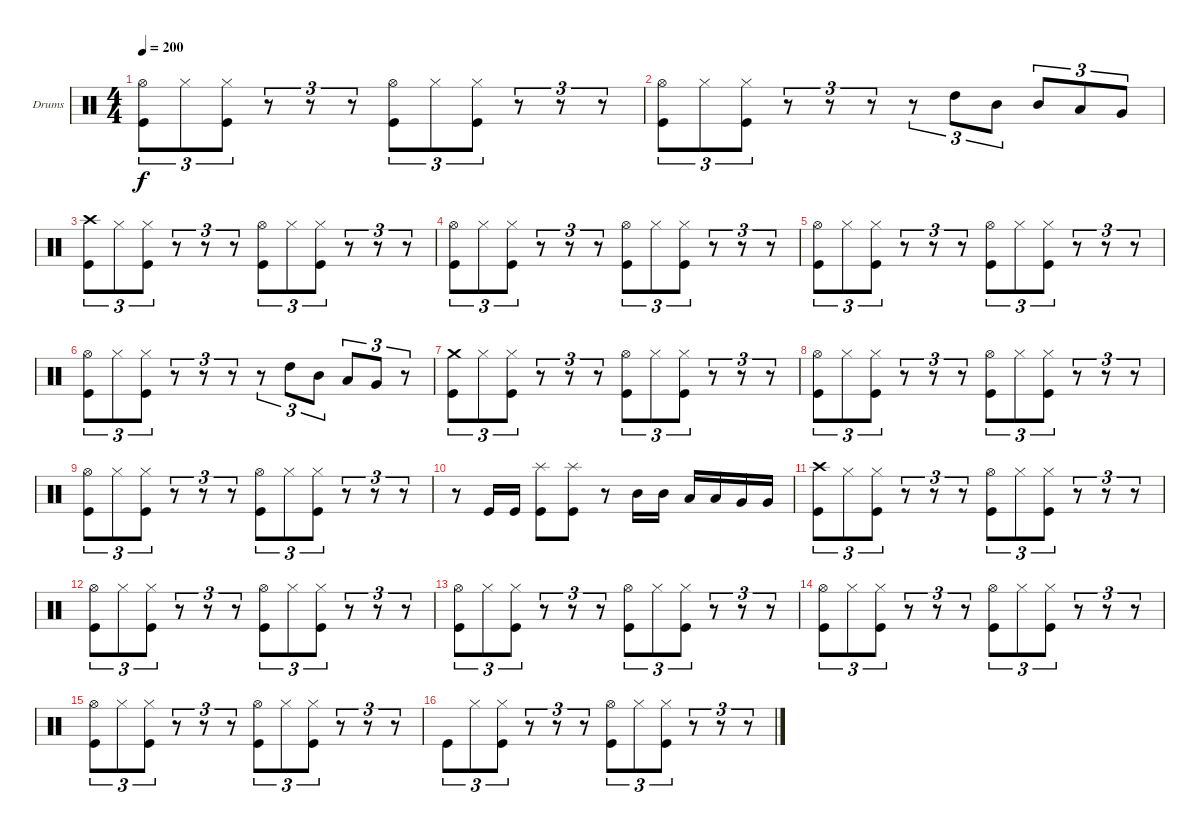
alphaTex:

\bracketExtendMode groupsimilarinstruments
\firstSystemTrackNameOrientation horizontal
\otherSystemsTrackNameOrientation horizontal
\track ("Drumkit" "Drums") {instrument percussion}
\staff {score}
\articulation defaults
\ts (4 4)
\tempo 200
\clef neutral
\scale
0.333333
\ks c
("Kick (hit)" "Hi-Hat (open)").8{tu (3 2) dy f} "Hi-Hat (closed)".8{tu (3 2)} ("Kick (hit)" "Hi-Hat (closed)").8{tu (3 2)} r.8{tu (3 2)} r.8{tu (3 2)} r.8{tu (3 2)} ("Kick (hit)" "Hi-Hat (open)").8{tu (3 2)} "Hi-Hat (closed)".8{tu (3 2)} ("Kick (hit)" "Hi-Hat (closed)").8{tu (3 2)} r.8{tu (3 2)} r.8{tu (3 2)} r.8{tu (3 2)} |
\scale
0.333333 ("Kick (hit)" "Hi-Hat (open)").8{tu (3 2)} "Hi-Hat (closed)".8{tu (3 2)} ("Kick (hit)" "Hi-Hat (closed)").8{tu (3 2)} r.8{tu (3 2)} r.8{tu (3 2)} r.8{tu (3 2)} r.8{tu (3 2)} "High Tom (hit)".8{tu (3 2)} "Mid Tom (hit)".8{tu (3 2)} "Mid Tom (hit)".8{tu (3 2)} "Low Tom (hit)".8{tu (3 2)} "Very Low Tom (hit)".8{tu (3 2)} |
\scale
0.333333 ("Kick (hit)" "Crash high (hit)").8{tu (3 2)} "Hi-Hat (closed)".8{tu (3 2)} ("Kick (hit)" "Hi-Hat (closed)").8{tu (3 2)} r.8{tu (3 2)} r.8{tu (3 2)} r.8{tu (3 2)} ("Kick (hit)" "Hi-Hat (open)").8{tu (3 2)} "Hi-Hat (closed)".8{tu (3 2)} ("Kick (hit)" "Hi-Hat (closed)").8{tu (3 2)} r.8{tu (3 2)} r.8{tu (3 2)} r.8{tu (3 2)} |
\scale
0.333333 ("Kick (hit)" "Hi-Hat (open)").8{tu (3 2)} "Hi-Hat (closed)".8{tu (3 2)} ("Kick (hit)" "Hi-Hat (closed)").8{tu (3 2)} r.8{tu (3 2)} r.8{tu (3 2)} r.8{tu (3 2)} ("Kick (hit)" "Hi-Hat (open)").8{tu (3 2)} "Hi-Hat (closed)".8{tu (3 2)} ("Kick (hit)" "Hi-Hat (closed)").8{tu (3 2)} r.8{tu (3 2)} r.8{tu (3 2)} r.8{tu (3 2)} |
\scale
0.333333 ("Kick (hit)" "Hi-Hat (open)").8{tu (3 2)} "Hi-Hat (closed)".8{tu (3 2)} ("Kick (hit)" "Hi-Hat (closed)").8{tu (3 2)} r.8{tu (3 2)} r.8{tu (3 2)} r.8{tu (3 2)} ("Kick (hit)" "Hi-Hat (open)").8{tu (3 2)} "Hi-Hat (closed)".8{tu (3 2)} ("Kick (hit)" "Hi-Hat (closed)").8{tu (3 2)} r.8{tu (3 2)} r.8{tu (3 2)} r.8{tu (3 2)} |
\scale
0.333333 ("Kick (hit)" "Hi-Hat (open)").8{tu (3 2)} "Hi-Hat (closed)".8{tu (3 2)} ("Kick (hit)" "Hi-Hat (closed)").8{tu (3 2)} r.8{tu (3 2)} r.8{tu (3 2)} r.8{tu (3 2)} r.8{tu (3 2)} "High Tom (hit)".8{tu (3 2)} "Mid Tom (hit)".8{tu (3 2)} "Low Tom (hit)".8{tu (3 2)} "Very Low Tom (hit)".8{tu (3 2)} r.8{tu (3 2)} |
\scale
0.333333 ("Kick (hit)" "Crash medium (hit)").8{tu (3 2)} "Hi-Hat (closed)".8{tu (3 2)} ("Kick (hit)" "Hi-Hat (closed)").8{tu (3 2)} r.8{tu (3 2)} r.8{tu (3 2)} r.8{tu (3 2)} ("Kick (hit)" "Hi-Hat (open)").8{tu (3 2)} "Hi-Hat (closed)".8{tu (3 2)} ("Kick (hit)" "Hi-Hat (closed)").8{tu (3 2)} r.8{tu (3 2)} r.8{tu (3 2)} r.8{tu (3 2)} |
\scale
0.333333 ("Kick (hit)" "Hi-Hat (open)").8{tu (3 2)} "Hi-Hat (closed)".8{tu (3 2)} ("Kick (hit)" "Hi-Hat (closed)").8{tu (3 2)} r.8{tu (3 2)} r.8{tu (3 2)} r.8{tu (3 2)} ("Kick (hit)" "Hi-Hat (open)").8{tu (3 2)} "Hi-Hat (closed)".8{tu (3 2)} ("Kick (hit)" "Hi-Hat (closed)").8{tu (3 2)} r.8{tu (3 2)} r.8{tu (3 2)} r.8{tu (3 2)} |
\scale
0.333333 ("Kick (hit)" "Hi-Hat (open)").8{tu (3 2)} "Hi-Hat (closed)".8{tu (3 2)} ("Kick (hit)" "Hi-Hat (closed)").8{tu (3 2)} r.8{tu (3 2)} r.8{tu (3 2)} r.8{tu (3 2)} ("Kick (hit)" "Hi-Hat (open)").8{tu (3 2)} "Hi-Hat (closed)".8{tu (3 2)} ("Kick (hit)" "Hi-Hat (closed)").8{tu (3 2)} r.8{tu (3 2)} r.8{tu (3 2)} r.8{tu (3 2)} |
\scale
0.333333 r.8 "Kick (hit)".16 "Kick (hit)".16 ("Kick (hit)" "Splash (hit)").8 ("Kick (hit)" "Splash (hit)").8 r.8 "Mid Tom (hit)".16 "Mid Tom (hit)".16 "Low Tom (hit)".16 "Low Tom (hit)".16 "Very Low Tom (hit)".16 "Very Low Tom (hit)".16 |
\scale
0.333333 ("Kick (hit)" "Crash high (hit)").8{tu (3 2)} "Hi-Hat (closed)".8{tu (3 2)} ("Kick (hit)" "Hi-Hat (closed)").8{tu (3 2)} r.8{tu (3 2)} r.8{tu (3 2)} r.8{tu (3 2)} ("Kick (hit)" "Hi-Hat (open)").8{tu (3 2)} "Hi-Hat (closed)".8{tu (3 2)} ("Kick (hit)" "Hi-Hat (closed)").8{tu (3 2)} r.8{tu (3 2)} r.8{tu (3 2)} r.8{tu (3 2)} |
\scale
0.333333 ("Kick (hit)" "Hi-Hat (open)").8{tu (3 2)} "Hi-Hat (closed)".8{tu (3 2)} ("Kick (hit)" "Hi-Hat (closed)").8{tu (3 2)} r.8{tu (3 2)} r.8{tu (3 2)} r.8{tu (3 2)} ("Kick (hit)" "Hi-Hat (open)").8{tu (3 2)} "Hi-Hat (closed)".8{tu (3 2)} ("Kick (hit)" "Hi-Hat (closed)").8{tu (3 2)} r.8{tu (3 2)} r.8{tu (3 2)} r.8{tu (3 2)} |
\scale
0.333333 ("Kick (hit)" "Hi-Hat (open)").8{tu (3 2)} "Hi-Hat (closed)".8{tu (3 2)} ("Kick (hit)" "Hi-Hat (closed)").8{tu (3 2)} r.8{tu (3 2)} r.8{tu (3 2)} r.8{tu (3 2)} ("Kick (hit)" "Hi-Hat (open)").8{tu (3 2)} "Hi-Hat (closed)".8{tu (3 2)} ("Kick (hit)" "Hi-Hat (closed)").8{tu (3 2)} r.8{tu (3 2)} r.8{tu (3 2)} r.8{tu (3 2)} |
\scale
0.333333 ("Kick (hit)" "Hi-Hat (open)").8{tu (3 2)} "Hi-Hat (closed)".8{tu (3 2)} ("Kick (hit)" "Hi-Hat (closed)").8{tu (3 2)} r.8{tu (3 2)} r.8{tu (3 2)} r.8{tu (3 2)} ("Kick (hit)" "Hi-Hat (open)").8{tu (3 2)} "Hi-Hat (closed)".8{tu (3 2)} ("Kick (hit)" "Hi-Hat (closed)").8{tu (3 2)} r.8{tu (3 2)} r.8{tu (3 2)} r.8{tu (3 2)} |
\scale
0.333333 ("Kick (hit)" "Hi-Hat (open)").8{tu (3 2)} "Hi-Hat (closed)".8{tu (3 2)} ("Kick (hit)" "Hi-Hat (closed)").8{tu (3 2)} r.8{tu (3 2)} r.8{tu (3 2)} r.8{tu (3 2)} ("Kick (hit)" "Hi-Hat (open)").8{tu (3 2)} "Hi-Hat (closed)".8{tu (3 2)} ("Kick (hit)" "Hi-Hat (closed)").8{tu (3 2)} r.8{tu (3 2)} r.8{tu (3 2)} r.8{tu (3 2)} |
\scale
0.333333 "Kick (hit)".8{tu (3 2)} "Hi-Hat (closed)".8{tu (3 2)} ("Kick (hit)" "Hi-Hat (closed)").8{tu (3 2)} r.8{tu (3 2)} r.8{tu (3 2)} r.8{tu (3 2)} ("Kick (hit)" "Hi-Hat (open)").8{tu (3 2)} "Hi-Hat (closed)".8{tu (3 2)} ("Kick (hit)" "Hi-Hat (closed)").8{tu (3 2)} r.8{tu (3 2)} r.8{tu (3 2)} r.8{tu (3 2)}
